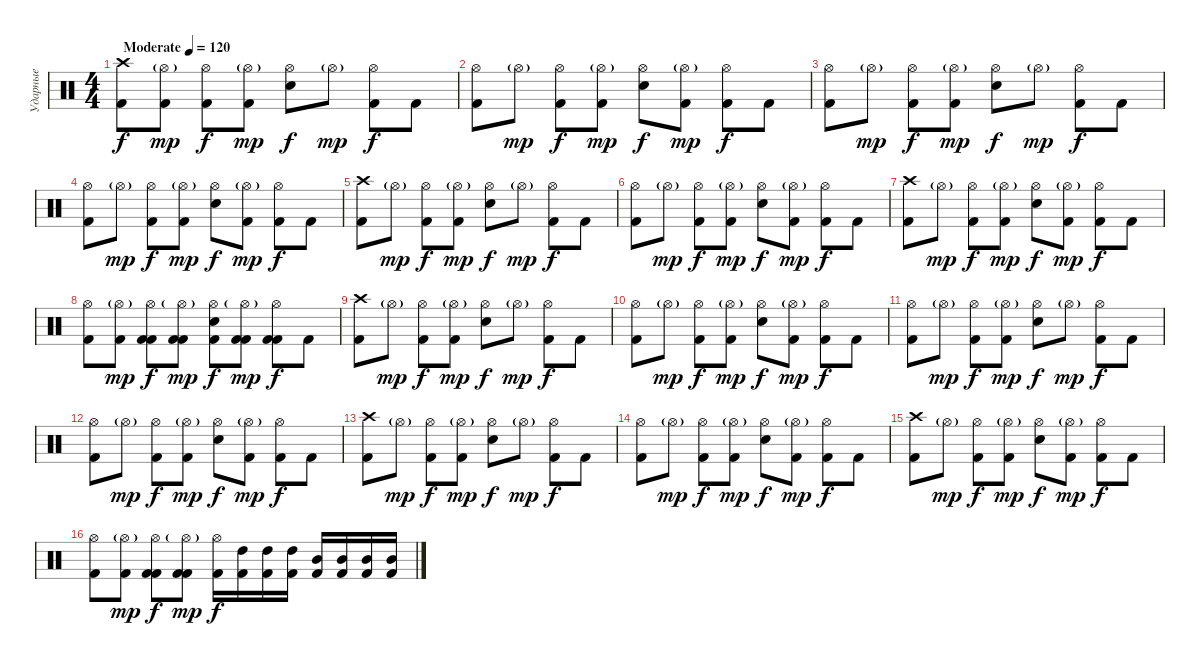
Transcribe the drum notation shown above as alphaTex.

\track ("Ударные" "Ударные") {instrument percussion}
\staff {score}
\articulation defaults
\ts (4 4)
\tempo (120 "Moderate")
\clef neutral
\ks c
("Kick (hit) 2" "Crash high (hit)").8{dy f} ("Hi-Hat (open)"{g} "Kick (hit) 2").8{dy mp} ("Hi-Hat (open)" "Kick (hit) 2").8{dy f} ("Hi-Hat (open)"{g} "Kick (hit) 2").8{dy mp} ("Hi-Hat (open)" "Snare (hit) 2").8{dy f} "Hi-Hat (open)"{g}.8{dy mp} ("Hi-Hat (open)" "Kick (hit) 2").8{dy f} "Kick (hit) 2".8 |
("Kick (hit) 2" "Hi-Hat (open)").8 "Hi-Hat (open)"{g}.8{dy mp} ("Hi-Hat (open)" "Kick (hit) 2").8{dy f} ("Hi-Hat (open)"{g} "Kick (hit) 2").8{dy mp} ("Hi-Hat (open)" "Snare (hit) 2").8{dy f} ("Hi-Hat (open)"{g} "Kick (hit) 2").8{dy mp} ("Hi-Hat (open)" "Kick (hit) 2").8{dy f} "Kick (hit) 2".8 |
("Kick (hit) 2" "Hi-Hat (open)").8 "Hi-Hat (open)"{g}.8{dy mp} ("Hi-Hat (open)" "Kick (hit) 2").8{dy f} ("Hi-Hat (open)"{g} "Kick (hit) 2").8{dy mp} ("Hi-Hat (open)" "Snare (hit) 2").8{dy f} "Hi-Hat (open)"{g}.8{dy mp} ("Hi-Hat (open)" "Kick (hit) 2").8{dy f} "Kick (hit) 2".8 |
("Kick (hit) 2" "Hi-Hat (open)").8 "Hi-Hat (open)"{g}.8{dy mp} ("Hi-Hat (open)" "Kick (hit) 2").8{dy f} ("Hi-Hat (open)"{g} "Kick (hit) 2").8{dy mp} ("Hi-Hat (open)" "Snare (hit) 2").8{dy f} ("Hi-Hat (open)"{g} "Kick (hit) 2").8{dy mp} ("Hi-Hat (open)" "Kick (hit) 2").8{dy f} "Kick (hit) 2".8 |
("Kick (hit) 2" "Crash high (hit)").8 "Hi-Hat (open)"{g}.8{dy mp} ("Hi-Hat (open)" "Kick (hit) 2").8{dy f} ("Hi-Hat (open)"{g} "Kick (hit) 2").8{dy mp} ("Hi-Hat (open)" "Snare (hit) 2").8{dy f} "Hi-Hat (open)"{g}.8{dy mp} ("Hi-Hat (open)" "Kick (hit) 2").8{dy f} "Kick (hit) 2".8 |
("Kick (hit) 2" "Hi-Hat (open)").8 "Hi-Hat (open)"{g}.8{dy mp} ("Hi-Hat (open)" "Kick (hit) 2").8{dy f} ("Hi-Hat (open)"{g} "Kick (hit) 2").8{dy mp} ("Hi-Hat (open)" "Snare (hit) 2").8{dy f} ("Hi-Hat (open)"{g} "Kick (hit) 2").8{dy mp} ("Hi-Hat (open)" "Kick (hit) 2").8{dy f} "Kick (hit) 2".8 |
("Kick (hit) 2" "Crash high (hit)").8 "Hi-Hat (open)"{g}.8{dy mp} ("Hi-Hat (open)" "Kick (hit) 2").8{dy f} ("Hi-Hat (open)"{g} "Kick (hit) 2").8{dy mp} ("Hi-Hat (open)" "Snare (hit) 2").8{dy f} ("Hi-Hat (open)"{g} "Kick (hit) 2").8{dy mp} ("Hi-Hat (open)" "Kick (hit) 2").8{dy f} "Kick (hit) 2".8 |
("Kick (hit) 2" "Hi-Hat (open)").8 ("Kick (hit) 2" "Hi-Hat (open)"{g}).8{dy mp} ("Kick (hit) 2" "Hi-Hat (open)" "Kick (hit) 2").8{dy f} ("Kick (hit) 2" "Hi-Hat (open)"{g} "Kick (hit) 2").8{dy mp} ("Kick (hit) 2" "Hi-Hat (open)" "Snare (hit) 2").8{dy f} ("Kick (hit) 2" "Hi-Hat (open)"{g} "Kick (hit) 2").8{dy mp} ("Kick (hit) 2" "Hi-Hat (open)" "Kick (hit) 2").8{dy f} "Kick (hit) 2".8 |
("Kick (hit) 2" "Crash high (hit)").8 "Hi-Hat (open)"{g}.8{dy mp} ("Hi-Hat (open)" "Kick (hit) 2").8{dy f} ("Hi-Hat (open)"{g} "Kick (hit) 2").8{dy mp} ("Hi-Hat (open)" "Snare (hit) 2").8{dy f} "Hi-Hat (open)"{g}.8{dy mp} ("Hi-Hat (open)" "Kick (hit) 2").8{dy f} "Kick (hit) 2".8 |
("Kick (hit) 2" "Hi-Hat (open)").8 "Hi-Hat (open)"{g}.8{dy mp} ("Hi-Hat (open)" "Kick (hit) 2").8{dy f} ("Hi-Hat (open)"{g} "Kick (hit) 2").8{dy mp} ("Hi-Hat (open)" "Snare (hit) 2").8{dy f} ("Hi-Hat (open)"{g} "Kick (hit) 2").8{dy mp} ("Hi-Hat (open)" "Kick (hit) 2").8{dy f} "Kick (hit) 2".8 |
("Kick (hit) 2" "Hi-Hat (open)").8 "Hi-Hat (open)"{g}.8{dy mp} ("Hi-Hat (open)" "Kick (hit) 2").8{dy f} ("Hi-Hat (open)"{g} "Kick (hit) 2").8{dy mp} ("Hi-Hat (open)" "Snare (hit) 2").8{dy f} "Hi-Hat (open)"{g}.8{dy mp} ("Hi-Hat (open)" "Kick (hit) 2").8{dy f} "Kick (hit) 2".8 |
("Kick (hit) 2" "Hi-Hat (open)").8 "Hi-Hat (open)"{g}.8{dy mp} ("Hi-Hat (open)" "Kick (hit) 2").8{dy f} ("Hi-Hat (open)"{g} "Kick (hit) 2").8{dy mp} ("Hi-Hat (open)" "Snare (hit) 2").8{dy f} ("Hi-Hat (open)"{g} "Kick (hit) 2").8{dy mp} ("Hi-Hat (open)" "Kick (hit) 2").8{dy f} "Kick (hit) 2".8 |
("Kick (hit) 2" "Crash high (hit)").8 "Hi-Hat (open)"{g}.8{dy mp} ("Hi-Hat (open)" "Kick (hit) 2").8{dy f} ("Hi-Hat (open)"{g} "Kick (hit) 2").8{dy mp} ("Hi-Hat (open)" "Snare (hit) 2").8{dy f} "Hi-Hat (open)"{g}.8{dy mp} ("Hi-Hat (open)" "Kick (hit) 2").8{dy f} "Kick (hit) 2".8 |
("Kick (hit) 2" "Hi-Hat (open)").8 "Hi-Hat (open)"{g}.8{dy mp} ("Hi-Hat (open)" "Kick (hit) 2").8{dy f} ("Hi-Hat (open)"{g} "Kick (hit) 2").8{dy mp} ("Hi-Hat (open)" "Snare (hit) 2").8{dy f} ("Hi-Hat (open)"{g} "Kick (hit) 2").8{dy mp} ("Hi-Hat (open)" "Kick (hit) 2").8{dy f} "Kick (hit) 2".8 |
("Kick (hit) 2" "Crash high (hit)").8 "Hi-Hat (open)"{g}.8{dy mp} ("Hi-Hat (open)" "Kick (hit) 2").8{dy f} ("Hi-Hat (open)"{g} "Kick (hit) 2").8{dy mp} ("Hi-Hat (open)" "Snare (hit) 2").8{dy f} ("Hi-Hat (open)"{g} "Kick (hit) 2").8{dy mp} ("Hi-Hat (open)" "Kick (hit) 2").8{dy f} "Kick (hit) 2".8 |
("Kick (hit) 2" "Hi-Hat (open)").8 ("Kick (hit) 2" "Hi-Hat (open)"{g}).8{dy mp} ("Kick (hit) 2" "Hi-Hat (open)" "Kick (hit) 2").8{dy f} ("Kick (hit) 2" "Hi-Hat (open)"{g} "Kick (hit) 2").8{dy mp} ("Hi-Hat (open)" "Kick (hit) 2").16{dy f} ("High Tom (hit)" "Kick (hit) 2").16 ("High Tom (hit)" "Kick (hit) 2").16 ("High Tom (hit)" "Kick (hit) 2").16 ("Mid Tom (hit)" "Kick (hit) 2").16 ("Mid Tom (hit)" "Kick (hit) 2").16 ("Mid Tom (hit)" "Kick (hit) 2").16 ("Mid Tom (hit)" "Kick (hit) 2").16
